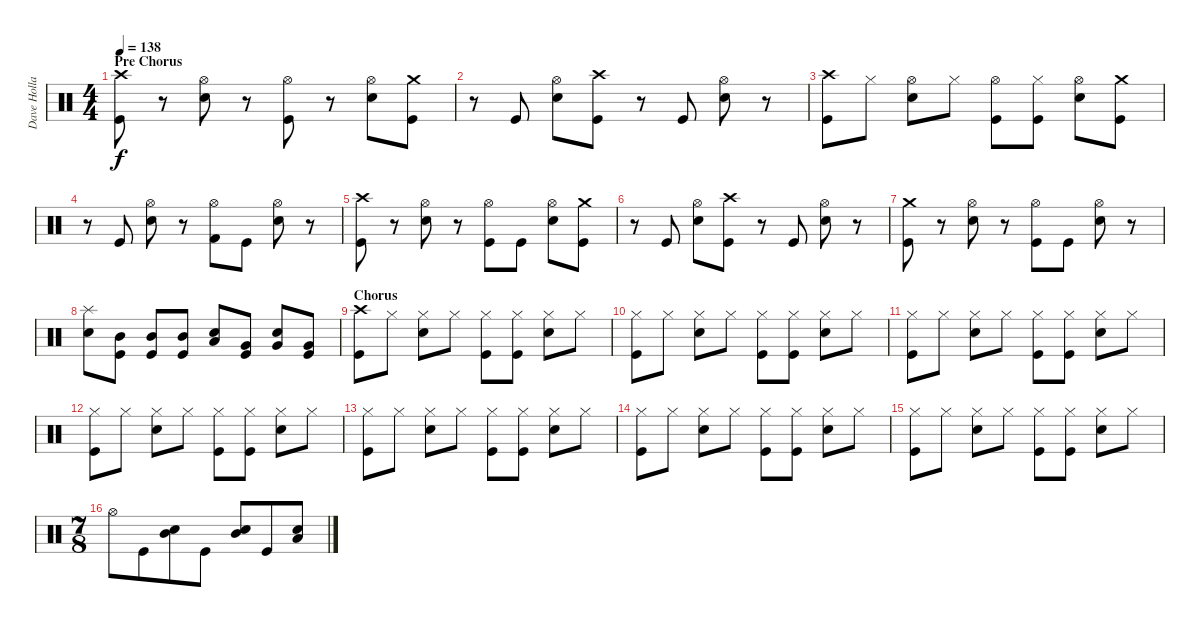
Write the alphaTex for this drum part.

\track ("Dave Holland" "Dave Holla") {instrument percussion}
\staff {score}
\articulation defaults
\ts (4 4)
\section ("" "Pre Chorus")
\tempo 138
\clef neutral
\ks c
("Crash high (hit)" "Kick (hit)").8{dy f} r.8 ("Hi-Hat (open)" "Electric Snare (hit)").8 r.8 ("Hi-Hat (open)" "Kick (hit)").8 r.8 ("Hi-Hat (open)" "Electric Snare (hit)").8 ("Crash medium (hit)" "Kick (hit)").8 |
r.8 "Kick (hit)".8 ("Hi-Hat (open)" "Electric Snare (hit)").8 ("Crash high (hit)" "Kick (hit)").8 r.8 "Kick (hit)".8 ("Hi-Hat (open)" "Electric Snare (hit)").8 r.8 |
("Crash high (hit)" "Kick (hit)").8 "Hi-Hat (closed)".8 ("Hi-Hat (open)" "Electric Snare (hit)").8 "Hi-Hat (closed)".8 ("Hi-Hat (open)" "Kick (hit)").8 ("Hi-Hat (closed)" "Kick (hit)").8 ("Hi-Hat (open)" "Electric Snare (hit)").8 ("Crash medium (hit)" "Kick (hit)").8 |
r.8 "Kick (hit)".8 ("Hi-Hat (open)" "Electric Snare (hit)").8 r.8 ("Hi-Hat (open)" "Kick (hit) 2").8 "Kick (hit)".8 ("Hi-Hat (open)" "Electric Snare (hit)").8 r.8 |
("Crash high (hit)" "Kick (hit)").8 r.8 ("Hi-Hat (open)" "Electric Snare (hit)").8 r.8 ("Hi-Hat (open)" "Kick (hit)").8 "Kick (hit)".8 ("Hi-Hat (open)" "Electric Snare (hit)").8 ("Crash medium (hit)" "Kick (hit)").8 |
r.8 "Kick (hit)".8 ("Hi-Hat (open)" "Electric Snare (hit)").8 ("Crash high (hit)" "Kick (hit)").8 r.8 "Kick (hit)".8 ("Hi-Hat (open)" "Electric Snare (hit)").8 r.8 |
("Crash medium (hit)" "Kick (hit)").8 r.8 ("Hi-Hat (open)" "Electric Snare (hit)").8 r.8 ("Hi-Hat (open)" "Kick (hit)").8 "Kick (hit)".8 ("Hi-Hat (open)" "Electric Snare (hit)").8 r.8 |
("Splash (hit)" "Electric Snare (hit)").8 ("Mid Tom (hit)" "Kick (hit)").8 ("Mid Tom (hit)" "Kick (hit)").8 ("Mid Tom (hit)" "Kick (hit)").8 ("Low Tom (hit)" "Electric Snare (hit)").8 ("Very Low Tom (hit)" "Kick (hit)").8 ("Very Low Tom (hit)" "Electric Snare (hit)").8 ("Very Low Tom (hit)" "Kick (hit)").8 |
\section ("" "Chorus")
("Crash high (hit)" "Kick (hit)").8 "Hi-Hat (closed)".8 ("Hi-Hat (closed)" "Electric Snare (hit)").8 "Hi-Hat (closed)".8 ("Hi-Hat (closed)" "Kick (hit)").8 ("Hi-Hat (closed)" "Kick (hit)").8 ("Hi-Hat (closed)" "Electric Snare (hit)").8 "Hi-Hat (closed)".8 |
("Hi-Hat (closed)" "Kick (hit)").8 "Hi-Hat (closed)".8 ("Hi-Hat (closed)" "Electric Snare (hit)").8 "Hi-Hat (closed)".8 ("Hi-Hat (closed)" "Kick (hit)").8 ("Hi-Hat (closed)" "Kick (hit)").8 ("Hi-Hat (closed)" "Electric Snare (hit)").8 "Hi-Hat (closed)".8 |
("Hi-Hat (closed)" "Kick (hit)").8 "Hi-Hat (closed)".8 ("Hi-Hat (closed)" "Electric Snare (hit)").8 "Hi-Hat (closed)".8 ("Hi-Hat (closed)" "Kick (hit)").8 ("Hi-Hat (closed)" "Kick (hit)").8 ("Hi-Hat (closed)" "Electric Snare (hit)").8 "Hi-Hat (closed)".8 |
("Hi-Hat (closed)" "Kick (hit)").8 "Hi-Hat (closed)".8 ("Hi-Hat (closed)" "Electric Snare (hit)").8 "Hi-Hat (closed)".8 ("Hi-Hat (closed)" "Kick (hit)").8 ("Hi-Hat (closed)" "Kick (hit)").8 ("Hi-Hat (closed)" "Electric Snare (hit)").8 "Hi-Hat (closed)".8 |
("Hi-Hat (closed)" "Kick (hit)").8 "Hi-Hat (closed)".8 ("Hi-Hat (closed)" "Electric Snare (hit)").8 "Hi-Hat (closed)".8 ("Hi-Hat (closed)" "Kick (hit)").8 ("Hi-Hat (closed)" "Kick (hit)").8 ("Hi-Hat (closed)" "Electric Snare (hit)").8 "Hi-Hat (closed)".8 |
("Hi-Hat (closed)" "Kick (hit)").8 "Hi-Hat (closed)".8 ("Hi-Hat (closed)" "Electric Snare (hit)").8 "Hi-Hat (closed)".8 ("Hi-Hat (closed)" "Kick (hit)").8 ("Hi-Hat (closed)" "Kick (hit)").8 ("Hi-Hat (closed)" "Electric Snare (hit)").8 "Hi-Hat (closed)".8 |
("Hi-Hat (closed)" "Kick (hit)").8 "Hi-Hat (closed)".8 ("Hi-Hat (closed)" "Electric Snare (hit)").8 "Hi-Hat (closed)".8 ("Hi-Hat (closed)" "Kick (hit)").8 ("Hi-Hat (closed)" "Kick (hit)").8 ("Hi-Hat (closed)" "Electric Snare (hit)").8 "Hi-Hat (closed)".8 |
\ts (7 8)
"Hi-Hat (open)".8 "Kick (hit)".8 ("Mid Tom (hit)" "Electric Snare (hit)").8 "Kick (hit)".8 ("Mid Tom (hit)" "Electric Snare (hit)").8 "Kick (hit)".8 ("Low Tom (hit)" "Electric Snare (hit)").8
